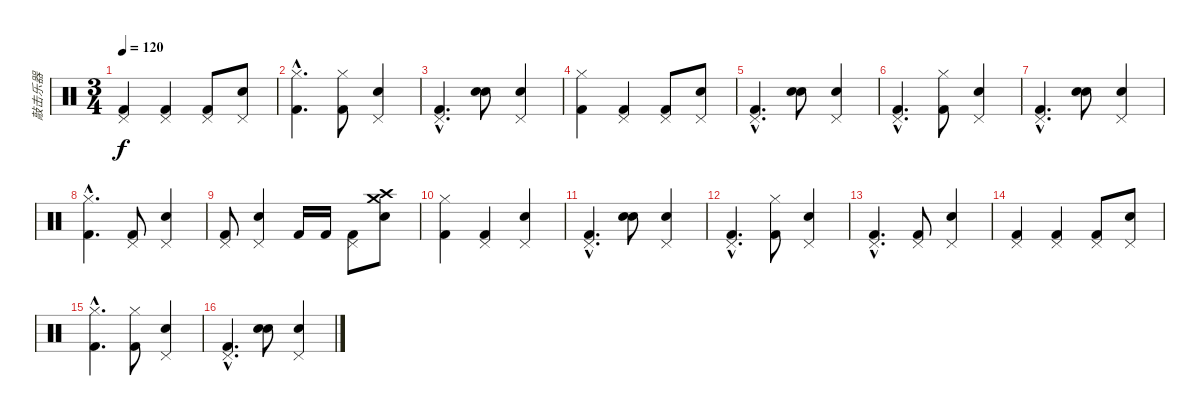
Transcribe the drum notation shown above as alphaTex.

\track ("敲击乐器" "敲击乐器") {instrument percussion}
\staff {score}
\articulation defaults
\ts (3 4)
\tempo 120
\clef neutral
\ks c
("Kick (hit) 2" "Pedal Hi-Hat (hit)").4{dy f} ("Kick (hit) 2" "Pedal Hi-Hat (hit)").4 ("Kick (hit) 2" "Pedal Hi-Hat (hit)").8 ("Snare (hit) 2" "Pedal Hi-Hat (hit)").8 |
("Kick (hit) 2"{hac} "Hi-Hat (closed)"{hac}).4{d} ("Kick (hit) 2" "Hi-Hat (closed)").8 ("Snare (hit) 2" "Pedal Hi-Hat (hit)").4 |
("Kick (hit) 2"{hac} "Pedal Hi-Hat (hit)"{hac}).4{d} ("Snare (hit) 2" "Electric Snare (hit)").8 ("Snare (hit) 2" "Pedal Hi-Hat (hit)").4 |
("Kick (hit) 2" "Hi-Hat (closed)").4 ("Kick (hit) 2" "Pedal Hi-Hat (hit)").4 ("Kick (hit) 2" "Pedal Hi-Hat (hit)").8 ("Snare (hit) 2" "Pedal Hi-Hat (hit)").8 |
("Kick (hit) 2"{hac} "Pedal Hi-Hat (hit)"{hac}).4{d} ("Snare (hit) 2" "Electric Snare (hit)").8 ("Snare (hit) 2" "Pedal Hi-Hat (hit)").4 |
("Kick (hit) 2"{hac} "Pedal Hi-Hat (hit)"{hac}).4{d} ("Kick (hit) 2" "Hi-Hat (closed)").8 ("Pedal Hi-Hat (hit)" "Snare (hit) 2").4 |
("Kick (hit) 2"{hac} "Pedal Hi-Hat (hit)"{hac}).4{d} ("Snare (hit) 2" "Electric Snare (hit)").8 ("Snare (hit) 2" "Pedal Hi-Hat (hit)").4 |
("Kick (hit) 2"{hac} "Hi-Hat (closed)"{hac}).4{d} ("Kick (hit) 2" "Pedal Hi-Hat (hit)").8 ("Pedal Hi-Hat (hit)" "Snare (hit) 2").4 |
("Kick (hit) 2" "Pedal Hi-Hat (hit)").8 ("Pedal Hi-Hat (hit)" "Snare (hit) 2").4 "Kick (hit) 2".16 "Kick (hit) 2".16 ("Kick (hit) 2" "Pedal Hi-Hat (hit)").8 ("Snare (hit) 2" "Crash high (hit)" "Crash medium (hit)").8 |
("Kick (hit) 2" "Hi-Hat (closed)").4 ("Kick (hit) 2" "Pedal Hi-Hat (hit)").4 ("Snare (hit) 2" "Pedal Hi-Hat (hit)").4 |
("Kick (hit) 2"{hac} "Pedal Hi-Hat (hit)"{hac}).4{d} ("Snare (hit) 2" "Electric Snare (hit)").8 ("Snare (hit) 2" "Pedal Hi-Hat (hit)").4 |
("Kick (hit) 2"{hac} "Pedal Hi-Hat (hit)"{hac}).4{d} ("Kick (hit) 2" "Hi-Hat (closed)").8 ("Pedal Hi-Hat (hit)" "Snare (hit) 2").4 |
("Kick (hit) 2"{hac} "Pedal Hi-Hat (hit)"{hac}).4{d} ("Kick (hit) 2" "Pedal Hi-Hat (hit)").8 ("Pedal Hi-Hat (hit)" "Snare (hit) 2").4 |
("Kick (hit) 2" "Pedal Hi-Hat (hit)").4 ("Kick (hit) 2" "Pedal Hi-Hat (hit)").4 ("Kick (hit) 2" "Pedal Hi-Hat (hit)").8 ("Snare (hit) 2" "Pedal Hi-Hat (hit)").8 |
("Kick (hit) 2"{hac} "Hi-Hat (closed)"{hac}).4{d} ("Kick (hit) 2" "Hi-Hat (closed)").8 ("Pedal Hi-Hat (hit)" "Snare (hit) 2").4 |
("Kick (hit) 2"{hac} "Pedal Hi-Hat (hit)"{hac}).4{d} ("Snare (hit) 2" "Electric Snare (hit)").8 ("Snare (hit) 2" "Pedal Hi-Hat (hit)").4
